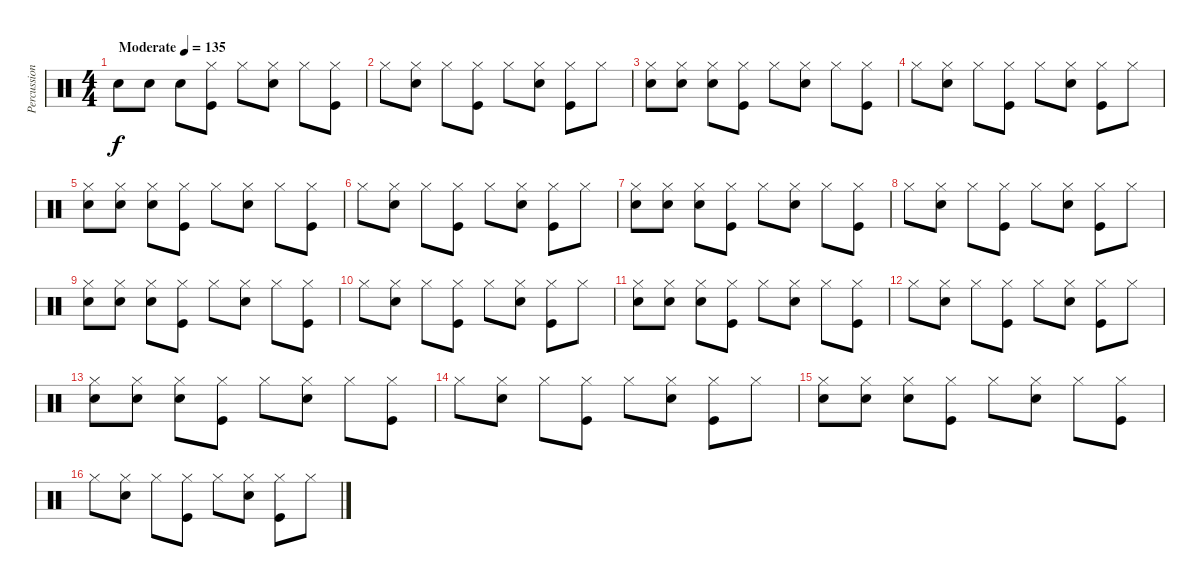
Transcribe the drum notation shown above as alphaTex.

\track ("Percussion" "Percussion") {instrument percussion}
\staff {score}
\articulation defaults
\ts (4 4)
\tempo (135 "Moderate")
\clef neutral
\ks c "Snare (hit) 2".8{dy f} "Snare (hit) 2".8 "Snare (hit) 2".8
("Hi-Hat (closed)" "Kick (hit)").8 "Hi-Hat (closed)".8 ("Hi-Hat (closed)" "Snare (hit) 2").8 "Hi-Hat (closed)".8 ("Hi-Hat (closed)" "Kick (hit)").8 |
"Hi-Hat (closed)".8 ("Hi-Hat (closed)" "Snare (hit) 2").8 "Hi-Hat (closed)".8 ("Hi-Hat (closed)" "Kick (hit)").8 "Hi-Hat (closed)".8 ("Hi-Hat (closed)" "Snare (hit) 2").8 ("Hi-Hat (closed)" "Kick (hit)").8 "Hi-Hat (closed)".8 |
("Hi-Hat (closed)" "Snare (hit) 2").8 ("Hi-Hat (closed)" "Snare (hit) 2").8 ("Hi-Hat (closed)" "Snare (hit) 2").8 ("Hi-Hat (closed)" "Kick (hit)").8 "Hi-Hat (closed)".8 ("Hi-Hat (closed)" "Snare (hit) 2").8 "Hi-Hat (closed)".8 ("Hi-Hat (closed)" "Kick (hit)").8 |
"Hi-Hat (closed)".8 ("Hi-Hat (closed)" "Snare (hit) 2").8 "Hi-Hat (closed)".8 ("Hi-Hat (closed)" "Kick (hit)").8 "Hi-Hat (closed)".8 ("Hi-Hat (closed)" "Snare (hit) 2").8 ("Hi-Hat (closed)" "Kick (hit)").8 "Hi-Hat (closed)".8 |
("Hi-Hat (closed)" "Snare (hit) 2").8 ("Hi-Hat (closed)" "Snare (hit) 2").8 ("Hi-Hat (closed)" "Snare (hit) 2").8 ("Hi-Hat (closed)" "Kick (hit)").8 "Hi-Hat (closed)".8 ("Hi-Hat (closed)" "Snare (hit) 2").8 "Hi-Hat (closed)".8 ("Hi-Hat (closed)" "Kick (hit)").8 |
"Hi-Hat (closed)".8 ("Hi-Hat (closed)" "Snare (hit) 2").8 "Hi-Hat (closed)".8 ("Hi-Hat (closed)" "Kick (hit)").8 "Hi-Hat (closed)".8 ("Hi-Hat (closed)" "Snare (hit) 2").8 ("Hi-Hat (closed)" "Kick (hit)").8 "Hi-Hat (closed)".8 |
("Hi-Hat (closed)" "Snare (hit) 2").8 ("Hi-Hat (closed)" "Snare (hit) 2").8 ("Hi-Hat (closed)" "Snare (hit) 2").8 ("Hi-Hat (closed)" "Kick (hit)").8 "Hi-Hat (closed)".8 ("Hi-Hat (closed)" "Snare (hit) 2").8 "Hi-Hat (closed)".8 ("Hi-Hat (closed)" "Kick (hit)").8 |
"Hi-Hat (closed)".8 ("Hi-Hat (closed)" "Snare (hit) 2").8 "Hi-Hat (closed)".8 ("Hi-Hat (closed)" "Kick (hit)").8 "Hi-Hat (closed)".8 ("Hi-Hat (closed)" "Snare (hit) 2").8 ("Hi-Hat (closed)" "Kick (hit)").8 "Hi-Hat (closed)".8 |
("Hi-Hat (closed)" "Snare (hit) 2").8 ("Hi-Hat (closed)" "Snare (hit) 2").8 ("Hi-Hat (closed)" "Snare (hit) 2").8 ("Hi-Hat (closed)" "Kick (hit)").8 "Hi-Hat (closed)".8 ("Hi-Hat (closed)" "Snare (hit) 2").8 "Hi-Hat (closed)".8 ("Hi-Hat (closed)" "Kick (hit)").8 |
"Hi-Hat (closed)".8 ("Hi-Hat (closed)" "Snare (hit) 2").8 "Hi-Hat (closed)".8 ("Hi-Hat (closed)" "Kick (hit)").8 "Hi-Hat (closed)".8 ("Hi-Hat (closed)" "Snare (hit) 2").8 ("Hi-Hat (closed)" "Kick (hit)").8 "Hi-Hat (closed)".8 |
("Hi-Hat (closed)" "Snare (hit) 2").8 ("Hi-Hat (closed)" "Snare (hit) 2").8 ("Hi-Hat (closed)" "Snare (hit) 2").8 ("Hi-Hat (closed)" "Kick (hit)").8 "Hi-Hat (closed)".8 ("Hi-Hat (closed)" "Snare (hit) 2").8 "Hi-Hat (closed)".8 ("Hi-Hat (closed)" "Kick (hit)").8 |
"Hi-Hat (closed)".8 ("Hi-Hat (closed)" "Snare (hit) 2").8 "Hi-Hat (closed)".8 ("Hi-Hat (closed)" "Kick (hit)").8 "Hi-Hat (closed)".8 ("Hi-Hat (closed)" "Snare (hit) 2").8 ("Hi-Hat (closed)" "Kick (hit)").8 "Hi-Hat (closed)".8 |
("Hi-Hat (closed)" "Snare (hit) 2").8 ("Hi-Hat (closed)" "Snare (hit) 2").8 ("Hi-Hat (closed)" "Snare (hit) 2").8 ("Hi-Hat (closed)" "Kick (hit)").8 "Hi-Hat (closed)".8 ("Hi-Hat (closed)" "Snare (hit) 2").8 "Hi-Hat (closed)".8 ("Hi-Hat (closed)" "Kick (hit)").8 |
"Hi-Hat (closed)".8 ("Hi-Hat (closed)" "Snare (hit) 2").8 "Hi-Hat (closed)".8 ("Hi-Hat (closed)" "Kick (hit)").8 "Hi-Hat (closed)".8 ("Hi-Hat (closed)" "Snare (hit) 2").8 ("Hi-Hat (closed)" "Kick (hit)").8 "Hi-Hat (closed)".8 |
("Hi-Hat (closed)" "Snare (hit) 2").8 ("Hi-Hat (closed)" "Snare (hit) 2").8 ("Hi-Hat (closed)" "Snare (hit) 2").8 ("Hi-Hat (closed)" "Kick (hit)").8 "Hi-Hat (closed)".8 ("Hi-Hat (closed)" "Snare (hit) 2").8 "Hi-Hat (closed)".8 ("Hi-Hat (closed)" "Kick (hit)").8 |
"Hi-Hat (closed)".8 ("Hi-Hat (closed)" "Snare (hit) 2").8 "Hi-Hat (closed)".8 ("Hi-Hat (closed)" "Kick (hit)").8 "Hi-Hat (closed)".8 ("Hi-Hat (closed)" "Snare (hit) 2").8 ("Hi-Hat (closed)" "Kick (hit)").8 "Hi-Hat (closed)".8
